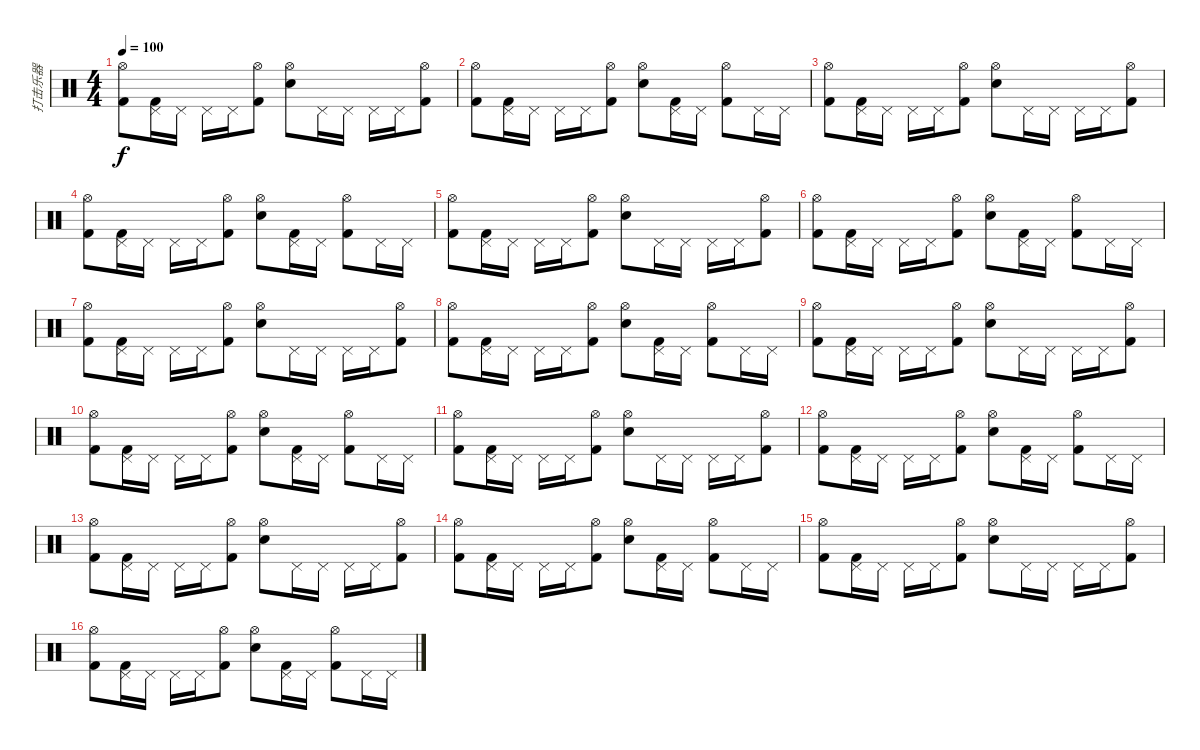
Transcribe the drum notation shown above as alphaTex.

\track ("打击乐器" "打击乐器") {instrument percussion}
\staff {score}
\articulation defaults
\ts (4 4)
\tempo 100
\clef neutral
\ks c
("Hi-Hat (open)" "Kick (hit) 2").8{dy f} ("Pedal Hi-Hat (hit)" "Kick (hit) 2").16 "Pedal Hi-Hat (hit)".16 "Pedal Hi-Hat (hit)".16 "Pedal Hi-Hat (hit)".16 ("Hi-Hat (open)" "Kick (hit) 2").8 ("Hi-Hat (open)" "Electric Snare (hit)").8 "Pedal Hi-Hat (hit)".16 "Pedal Hi-Hat (hit)".16 "Pedal Hi-Hat (hit)".16 "Pedal Hi-Hat (hit)".16 ("Hi-Hat (open)" "Kick (hit) 2").8 |
("Hi-Hat (open)" "Kick (hit) 2").8 ("Pedal Hi-Hat (hit)" "Kick (hit) 2").16 "Pedal Hi-Hat (hit)".16 "Pedal Hi-Hat (hit)".16 "Pedal Hi-Hat (hit)".16 ("Hi-Hat (open)" "Kick (hit) 2").8 ("Hi-Hat (open)" "Electric Snare (hit)").8 ("Pedal Hi-Hat (hit)" "Kick (hit) 2").16 "Pedal Hi-Hat (hit)".16 ("Hi-Hat (open)" "Kick (hit) 2").8 "Pedal Hi-Hat (hit)".16 "Pedal Hi-Hat (hit)".16 |
("Hi-Hat (open)" "Kick (hit) 2").8 ("Pedal Hi-Hat (hit)" "Kick (hit) 2").16 "Pedal Hi-Hat (hit)".16 "Pedal Hi-Hat (hit)".16 "Pedal Hi-Hat (hit)".16 ("Hi-Hat (open)" "Kick (hit) 2").8 ("Hi-Hat (open)" "Electric Snare (hit)").8 "Pedal Hi-Hat (hit)".16 "Pedal Hi-Hat (hit)".16 "Pedal Hi-Hat (hit)".16 "Pedal Hi-Hat (hit)".16 ("Hi-Hat (open)" "Kick (hit) 2").8 |
("Hi-Hat (open)" "Kick (hit) 2").8 ("Pedal Hi-Hat (hit)" "Kick (hit) 2").16 "Pedal Hi-Hat (hit)".16 "Pedal Hi-Hat (hit)".16 "Pedal Hi-Hat (hit)".16 ("Hi-Hat (open)" "Kick (hit) 2").8 ("Hi-Hat (open)" "Electric Snare (hit)").8 ("Pedal Hi-Hat (hit)" "Kick (hit) 2").16 "Pedal Hi-Hat (hit)".16 ("Hi-Hat (open)" "Kick (hit) 2").8 "Pedal Hi-Hat (hit)".16 "Pedal Hi-Hat (hit)".16 |
("Hi-Hat (open)" "Kick (hit) 2").8 ("Pedal Hi-Hat (hit)" "Kick (hit) 2").16 "Pedal Hi-Hat (hit)".16 "Pedal Hi-Hat (hit)".16 "Pedal Hi-Hat (hit)".16 ("Hi-Hat (open)" "Kick (hit) 2").8 ("Hi-Hat (open)" "Electric Snare (hit)").8 "Pedal Hi-Hat (hit)".16 "Pedal Hi-Hat (hit)".16 "Pedal Hi-Hat (hit)".16 "Pedal Hi-Hat (hit)".16 ("Hi-Hat (open)" "Kick (hit) 2").8 |
("Hi-Hat (open)" "Kick (hit) 2").8 ("Pedal Hi-Hat (hit)" "Kick (hit) 2").16 "Pedal Hi-Hat (hit)".16 "Pedal Hi-Hat (hit)".16 "Pedal Hi-Hat (hit)".16 ("Hi-Hat (open)" "Kick (hit) 2").8 ("Hi-Hat (open)" "Electric Snare (hit)").8 ("Pedal Hi-Hat (hit)" "Kick (hit) 2").16 "Pedal Hi-Hat (hit)".16 ("Hi-Hat (open)" "Kick (hit) 2").8 "Pedal Hi-Hat (hit)".16 "Pedal Hi-Hat (hit)".16 |
("Hi-Hat (open)" "Kick (hit) 2").8 ("Pedal Hi-Hat (hit)" "Kick (hit) 2").16 "Pedal Hi-Hat (hit)".16 "Pedal Hi-Hat (hit)".16 "Pedal Hi-Hat (hit)".16 ("Hi-Hat (open)" "Kick (hit) 2").8 ("Hi-Hat (open)" "Electric Snare (hit)").8 "Pedal Hi-Hat (hit)".16 "Pedal Hi-Hat (hit)".16 "Pedal Hi-Hat (hit)".16 "Pedal Hi-Hat (hit)".16 ("Hi-Hat (open)" "Kick (hit) 2").8 |
("Hi-Hat (open)" "Kick (hit) 2").8 ("Pedal Hi-Hat (hit)" "Kick (hit) 2").16 "Pedal Hi-Hat (hit)".16 "Pedal Hi-Hat (hit)".16 "Pedal Hi-Hat (hit)".16 ("Hi-Hat (open)" "Kick (hit) 2").8 ("Hi-Hat (open)" "Electric Snare (hit)").8 ("Pedal Hi-Hat (hit)" "Kick (hit) 2").16 "Pedal Hi-Hat (hit)".16 ("Hi-Hat (open)" "Kick (hit) 2").8 "Pedal Hi-Hat (hit)".16 "Pedal Hi-Hat (hit)".16 |
("Hi-Hat (open)" "Kick (hit) 2").8 ("Pedal Hi-Hat (hit)" "Kick (hit) 2").16 "Pedal Hi-Hat (hit)".16 "Pedal Hi-Hat (hit)".16 "Pedal Hi-Hat (hit)".16 ("Hi-Hat (open)" "Kick (hit) 2").8 ("Hi-Hat (open)" "Electric Snare (hit)").8 "Pedal Hi-Hat (hit)".16 "Pedal Hi-Hat (hit)".16 "Pedal Hi-Hat (hit)".16 "Pedal Hi-Hat (hit)".16 ("Hi-Hat (open)" "Kick (hit) 2").8 |
("Hi-Hat (open)" "Kick (hit) 2").8 ("Pedal Hi-Hat (hit)" "Kick (hit) 2").16 "Pedal Hi-Hat (hit)".16 "Pedal Hi-Hat (hit)".16 "Pedal Hi-Hat (hit)".16 ("Hi-Hat (open)" "Kick (hit) 2").8 ("Hi-Hat (open)" "Electric Snare (hit)").8 ("Pedal Hi-Hat (hit)" "Kick (hit) 2").16 "Pedal Hi-Hat (hit)".16 ("Hi-Hat (open)" "Kick (hit) 2").8 "Pedal Hi-Hat (hit)".16 "Pedal Hi-Hat (hit)".16 |
("Hi-Hat (open)" "Kick (hit) 2").8 ("Pedal Hi-Hat (hit)" "Kick (hit) 2").16 "Pedal Hi-Hat (hit)".16 "Pedal Hi-Hat (hit)".16 "Pedal Hi-Hat (hit)".16 ("Hi-Hat (open)" "Kick (hit) 2").8 ("Hi-Hat (open)" "Electric Snare (hit)").8 "Pedal Hi-Hat (hit)".16 "Pedal Hi-Hat (hit)".16 "Pedal Hi-Hat (hit)".16 "Pedal Hi-Hat (hit)".16 ("Hi-Hat (open)" "Kick (hit) 2").8 |
("Hi-Hat (open)" "Kick (hit) 2").8 ("Pedal Hi-Hat (hit)" "Kick (hit) 2").16 "Pedal Hi-Hat (hit)".16 "Pedal Hi-Hat (hit)".16 "Pedal Hi-Hat (hit)".16 ("Hi-Hat (open)" "Kick (hit) 2").8 ("Hi-Hat (open)" "Electric Snare (hit)").8 ("Pedal Hi-Hat (hit)" "Kick (hit) 2").16 "Pedal Hi-Hat (hit)".16 ("Hi-Hat (open)" "Kick (hit) 2").8 "Pedal Hi-Hat (hit)".16 "Pedal Hi-Hat (hit)".16 |
("Hi-Hat (open)" "Kick (hit) 2").8 ("Pedal Hi-Hat (hit)" "Kick (hit) 2").16 "Pedal Hi-Hat (hit)".16 "Pedal Hi-Hat (hit)".16 "Pedal Hi-Hat (hit)".16 ("Hi-Hat (open)" "Kick (hit) 2").8 ("Hi-Hat (open)" "Electric Snare (hit)").8 "Pedal Hi-Hat (hit)".16 "Pedal Hi-Hat (hit)".16 "Pedal Hi-Hat (hit)".16 "Pedal Hi-Hat (hit)".16 ("Hi-Hat (open)" "Kick (hit) 2").8 |
("Hi-Hat (open)" "Kick (hit) 2").8 ("Pedal Hi-Hat (hit)" "Kick (hit) 2").16 "Pedal Hi-Hat (hit)".16 "Pedal Hi-Hat (hit)".16 "Pedal Hi-Hat (hit)".16 ("Hi-Hat (open)" "Kick (hit) 2").8 ("Hi-Hat (open)" "Electric Snare (hit)").8 ("Pedal Hi-Hat (hit)" "Kick (hit) 2").16 "Pedal Hi-Hat (hit)".16 ("Hi-Hat (open)" "Kick (hit) 2").8 "Pedal Hi-Hat (hit)".16 "Pedal Hi-Hat (hit)".16 |
("Hi-Hat (open)" "Kick (hit) 2").8 ("Pedal Hi-Hat (hit)" "Kick (hit) 2").16 "Pedal Hi-Hat (hit)".16 "Pedal Hi-Hat (hit)".16 "Pedal Hi-Hat (hit)".16 ("Hi-Hat (open)" "Kick (hit) 2").8 ("Hi-Hat (open)" "Electric Snare (hit)").8 "Pedal Hi-Hat (hit)".16 "Pedal Hi-Hat (hit)".16 "Pedal Hi-Hat (hit)".16 "Pedal Hi-Hat (hit)".16 ("Hi-Hat (open)" "Kick (hit) 2").8 |
("Hi-Hat (open)" "Kick (hit) 2").8 ("Pedal Hi-Hat (hit)" "Kick (hit) 2").16 "Pedal Hi-Hat (hit)".16 "Pedal Hi-Hat (hit)".16 "Pedal Hi-Hat (hit)".16 ("Hi-Hat (open)" "Kick (hit) 2").8 ("Hi-Hat (open)" "Electric Snare (hit)").8 ("Pedal Hi-Hat (hit)" "Kick (hit) 2").16 "Pedal Hi-Hat (hit)".16 ("Hi-Hat (open)" "Kick (hit) 2").8 "Pedal Hi-Hat (hit)".16 "Pedal Hi-Hat (hit)".16
